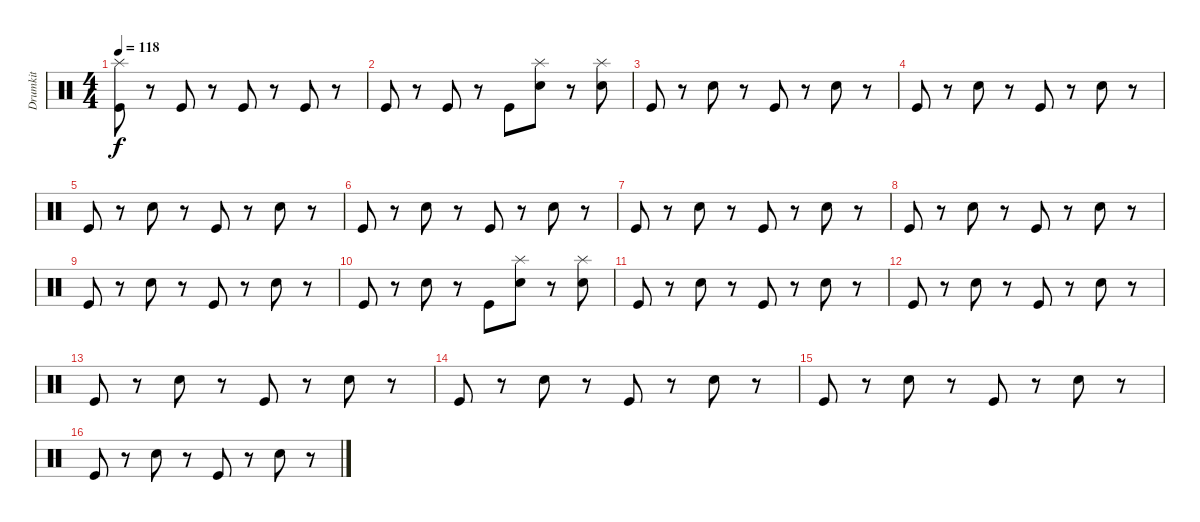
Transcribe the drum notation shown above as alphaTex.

\track ("Drumkit" "Drumkit") {instrument percussion}
\staff {score}
\articulation defaults
\ts (4 4)
\tempo 118
\clef neutral
\ks c
("Kick (hit)" "Splash (hit)").8{dy f} r.8 "Kick (hit)".8 r.8 "Kick (hit)".8 r.8 "Kick (hit)".8 r.8 |
"Kick (hit)".8 r.8 "Kick (hit)".8 r.8 "Kick (hit)".8 ("Snare (hit) 2" "Splash (hit)").8 r.8 ("Snare (hit) 2" "Splash (hit)").8 |
"Kick (hit)".8 r.8 "Snare (hit) 2".8 r.8 "Kick (hit)".8 r.8 "Snare (hit) 2".8 r.8 |
"Kick (hit)".8 r.8 "Snare (hit) 2".8 r.8 "Kick (hit)".8 r.8 "Snare (hit) 2".8 r.8 |
"Kick (hit)".8 r.8 "Snare (hit) 2".8 r.8 "Kick (hit)".8 r.8 "Snare (hit) 2".8 r.8 |
"Kick (hit)".8 r.8 "Snare (hit) 2".8 r.8 "Kick (hit)".8 r.8 "Snare (hit) 2".8 r.8 |
"Kick (hit)".8 r.8 "Snare (hit) 2".8 r.8 "Kick (hit)".8 r.8 "Snare (hit) 2".8 r.8 |
"Kick (hit)".8 r.8 "Snare (hit) 2".8 r.8 "Kick (hit)".8 r.8 "Snare (hit) 2".8 r.8 |
"Kick (hit)".8 r.8 "Snare (hit) 2".8 r.8 "Kick (hit)".8 r.8 "Snare (hit) 2".8 r.8 |
"Kick (hit)".8 r.8 "Snare (hit) 2".8 r.8 "Kick (hit)".8 ("Snare (hit) 2" "Splash (hit)").8 r.8 ("Snare (hit) 2" "Splash (hit)").8 |
"Kick (hit)".8 r.8 "Snare (hit) 2".8 r.8 "Kick (hit)".8 r.8 "Snare (hit) 2".8 r.8 |
"Kick (hit)".8 r.8 "Snare (hit) 2".8 r.8 "Kick (hit)".8 r.8 "Snare (hit) 2".8 r.8 |
"Kick (hit)".8 r.8 "Snare (hit) 2".8 r.8 "Kick (hit)".8 r.8 "Snare (hit) 2".8 r.8 |
"Kick (hit)".8 r.8 "Snare (hit) 2".8 r.8 "Kick (hit)".8 r.8 "Snare (hit) 2".8 r.8 |
"Kick (hit)".8 r.8 "Snare (hit) 2".8 r.8 "Kick (hit)".8 r.8 "Snare (hit) 2".8 r.8 |
"Kick (hit)".8 r.8 "Snare (hit) 2".8 r.8 "Kick (hit)".8 r.8 "Snare (hit) 2".8 r.8
